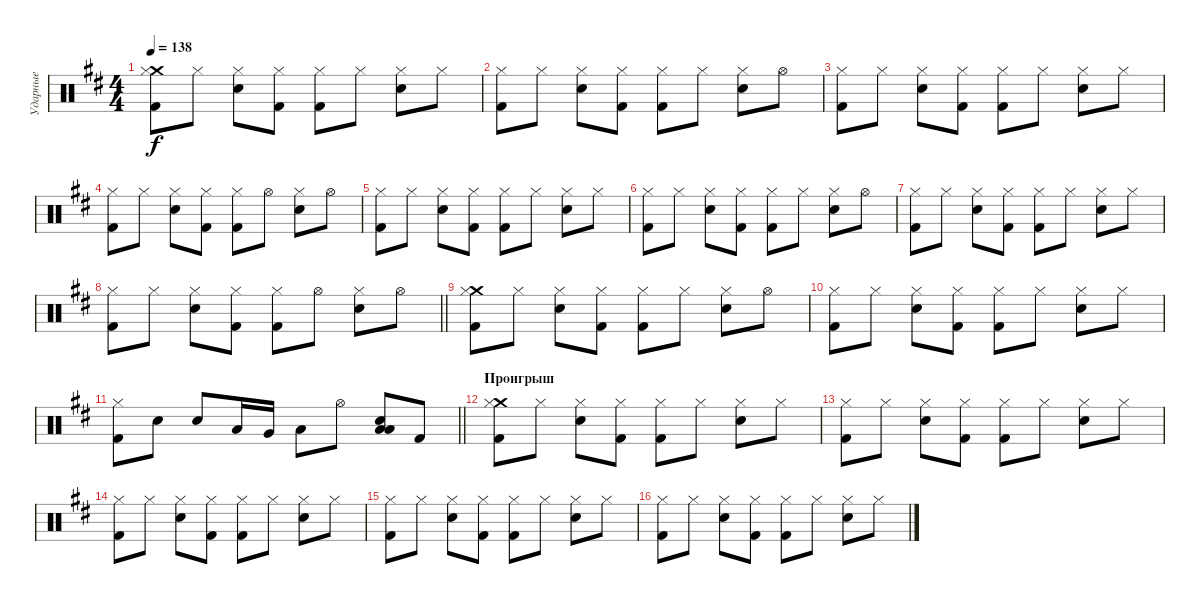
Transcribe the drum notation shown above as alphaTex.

\track ("Ударные" "Ударные") {instrument percussion}
\staff {score}
\articulation defaults
\ts (4 4)
\tempo 138
\clef neutral
\ks bminor
("Crash medium (hit)" "Kick (hit) 2" "Hi-Hat (closed)").8{dy f} "Hi-Hat (closed)".8 ("Electric Snare (hit)" "Hi-Hat (closed)").8 ("Kick (hit) 2" "Hi-Hat (closed)").8 ("Kick (hit) 2" "Hi-Hat (closed)").8 "Hi-Hat (closed)".8 ("Electric Snare (hit)" "Hi-Hat (closed)").8 "Hi-Hat (closed)".8 |
("Kick (hit) 2" "Hi-Hat (closed)").8 "Hi-Hat (closed)".8 ("Electric Snare (hit)" "Hi-Hat (closed)").8 ("Kick (hit) 2" "Hi-Hat (closed)").8 ("Kick (hit) 2" "Hi-Hat (closed)").8 "Hi-Hat (closed)".8 ("Electric Snare (hit)" "Hi-Hat (closed)").8 "Hi-Hat (open)".8 |
("Kick (hit) 2" "Hi-Hat (closed)").8 "Hi-Hat (closed)".8 ("Electric Snare (hit)" "Hi-Hat (closed)").8 ("Kick (hit) 2" "Hi-Hat (closed)").8 ("Kick (hit) 2" "Hi-Hat (closed)").8 "Hi-Hat (closed)".8 ("Electric Snare (hit)" "Hi-Hat (closed)").8 "Hi-Hat (closed)".8 |
("Kick (hit) 2" "Hi-Hat (closed)").8 "Hi-Hat (closed)".8 ("Electric Snare (hit)" "Hi-Hat (closed)").8 ("Kick (hit) 2" "Hi-Hat (closed)").8 ("Kick (hit) 2" "Hi-Hat (closed)").8 "Hi-Hat (open)".8 ("Electric Snare (hit)" "Hi-Hat (closed)").8 "Hi-Hat (open)".8 |
("Kick (hit) 2" "Hi-Hat (closed)").8 "Hi-Hat (closed)".8 ("Electric Snare (hit)" "Hi-Hat (closed)").8 ("Kick (hit) 2" "Hi-Hat (closed)").8 ("Kick (hit) 2" "Hi-Hat (closed)").8 "Hi-Hat (closed)".8 ("Electric Snare (hit)" "Hi-Hat (closed)").8 "Hi-Hat (closed)".8 |
("Kick (hit) 2" "Hi-Hat (closed)").8 "Hi-Hat (closed)".8 ("Electric Snare (hit)" "Hi-Hat (closed)").8 ("Kick (hit) 2" "Hi-Hat (closed)").8 ("Kick (hit) 2" "Hi-Hat (closed)").8 "Hi-Hat (closed)".8 ("Electric Snare (hit)" "Hi-Hat (closed)").8 "Hi-Hat (open)".8 |
("Kick (hit) 2" "Hi-Hat (closed)").8 "Hi-Hat (closed)".8 ("Electric Snare (hit)" "Hi-Hat (closed)").8 ("Kick (hit) 2" "Hi-Hat (closed)").8 ("Kick (hit) 2" "Hi-Hat (closed)").8 "Hi-Hat (closed)".8 ("Electric Snare (hit)" "Hi-Hat (closed)").8 "Hi-Hat (closed)".8 |
\barLineRight lightlight
("Kick (hit) 2" "Hi-Hat (closed)").8 "Hi-Hat (closed)".8 ("Electric Snare (hit)" "Hi-Hat (closed)").8 ("Kick (hit) 2" "Hi-Hat (closed)").8 ("Kick (hit) 2" "Hi-Hat (closed)").8 "Hi-Hat (open)".8 ("Electric Snare (hit)" "Hi-Hat (closed)").8 "Hi-Hat (open)".8 |
\section ("" "")
("Crash medium (hit)" "Kick (hit) 2" "Hi-Hat (closed)").8 "Hi-Hat (closed)".8 ("Electric Snare (hit)" "Hi-Hat (closed)").8 ("Kick (hit) 2" "Hi-Hat (closed)").8 ("Kick (hit) 2" "Hi-Hat (closed)").8 "Hi-Hat (closed)".8 ("Electric Snare (hit)" "Hi-Hat (closed)").8 "Hi-Hat (open)".8 |
("Kick (hit) 2" "Hi-Hat (closed)").8 "Hi-Hat (closed)".8 ("Electric Snare (hit)" "Hi-Hat (closed)").8 ("Kick (hit) 2" "Hi-Hat (closed)").8 ("Kick (hit) 2" "Hi-Hat (closed)").8 "Hi-Hat (closed)".8 ("Electric Snare (hit)" "Hi-Hat (closed)").8 "Hi-Hat (closed)".8 |
\barLineRight lightlight
("Hi-Hat (closed)" "Kick (hit) 2").8 "Electric Snare (hit)".8 "Electric Snare (hit)".8 "Low Tom (hit)".16 "Very Low Tom (hit)".16 "Low Floor Tom (hit)".8 "Hi-Hat (open)".8 ("Low Floor Tom (hit)" "Electric Snare (hit)" "Low Tom (hit)").8 "Kick (hit) 2".8 |
\section ("" "Проигрыш")
("Crash medium (hit)" "Kick (hit) 2" "Hi-Hat (closed)").8 "Hi-Hat (closed)".8 ("Electric Snare (hit)" "Hi-Hat (closed)").8 ("Kick (hit) 2" "Hi-Hat (closed)").8 ("Kick (hit) 2" "Hi-Hat (closed)").8 "Hi-Hat (closed)".8 ("Electric Snare (hit)" "Hi-Hat (closed)").8 "Hi-Hat (closed)".8 |
("Kick (hit) 2" "Hi-Hat (closed)").8 "Hi-Hat (closed)".8 ("Electric Snare (hit)" "Hi-Hat (closed)").8 ("Kick (hit) 2" "Hi-Hat (closed)").8 ("Kick (hit) 2" "Hi-Hat (closed)").8 "Hi-Hat (closed)".8 ("Electric Snare (hit)" "Hi-Hat (closed)").8 "Hi-Hat (closed)".8 |
("Kick (hit) 2" "Hi-Hat (closed)").8 "Hi-Hat (closed)".8 ("Electric Snare (hit)" "Hi-Hat (closed)").8 ("Kick (hit) 2" "Hi-Hat (closed)").8 ("Kick (hit) 2" "Hi-Hat (closed)").8 "Hi-Hat (closed)".8 ("Electric Snare (hit)" "Hi-Hat (closed)").8 "Hi-Hat (closed)".8 |
("Kick (hit) 2" "Hi-Hat (closed)").8 "Hi-Hat (closed)".8 ("Electric Snare (hit)" "Hi-Hat (closed)").8 ("Kick (hit) 2" "Hi-Hat (closed)").8 ("Kick (hit) 2" "Hi-Hat (closed)").8 "Hi-Hat (closed)".8 ("Electric Snare (hit)" "Hi-Hat (closed)").8 "Hi-Hat (closed)".8 |
("Kick (hit) 2" "Hi-Hat (closed)").8 "Hi-Hat (closed)".8 ("Electric Snare (hit)" "Hi-Hat (closed)").8 ("Kick (hit) 2" "Hi-Hat (closed)").8 ("Kick (hit) 2" "Hi-Hat (closed)").8 "Hi-Hat (closed)".8 ("Electric Snare (hit)" "Hi-Hat (closed)").8 "Hi-Hat (closed)".8
